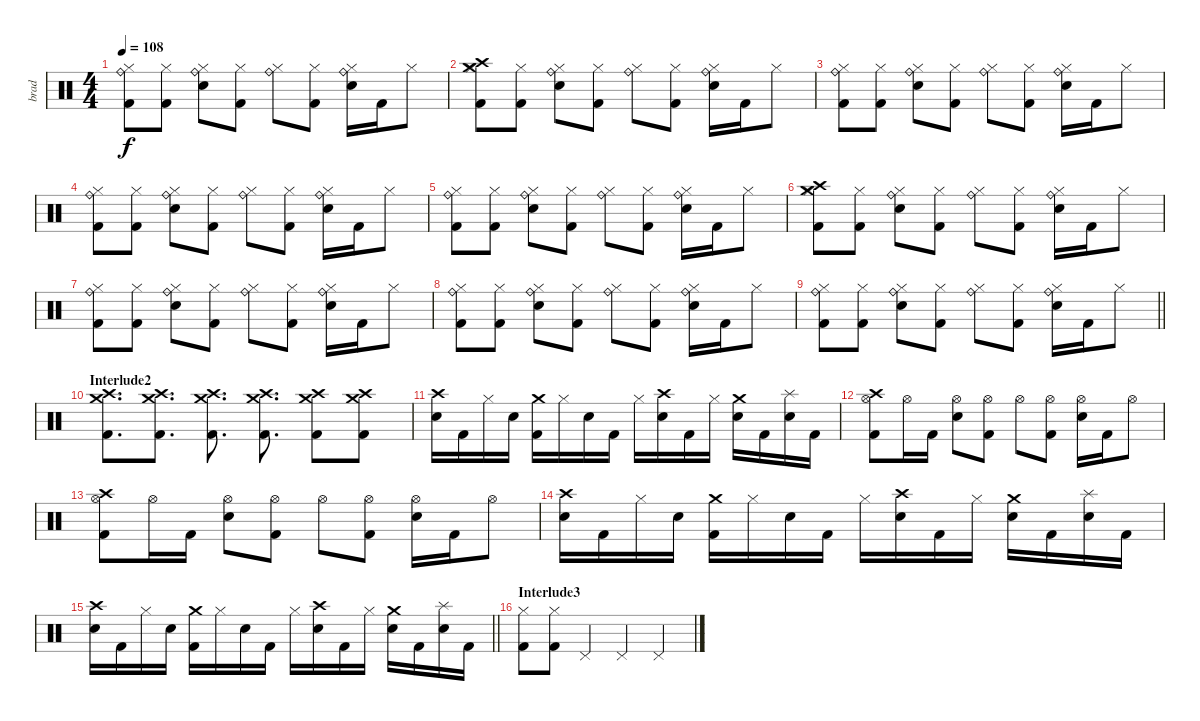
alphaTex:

\track ("brad" "brad") {instrument percussion}
\staff {score}
\articulation defaults
\ts (4 4)
\tempo 108
\clef neutral
\ks c
("Ride (bell)" "Hi-Hat (closed)" "Kick (hit) 2").8{dy f} ("Hi-Hat (closed)" "Kick (hit) 2").8 ("Ride (bell)" "Hi-Hat (closed)" "Electric Snare (hit)").8 ("Hi-Hat (closed)" "Kick (hit) 2").8 ("Ride (bell)" "Hi-Hat (closed)").8 ("Hi-Hat (closed)" "Kick (hit) 2").8 ("Ride (bell)" "Hi-Hat (closed)" "Electric Snare (hit)").16 "Kick (hit) 2".16 "Hi-Hat (closed)".8 |
("Crash medium (hit)" "Crash high (hit)" "Hi-Hat (closed)" "Kick (hit) 2").8 ("Hi-Hat (closed)" "Kick (hit) 2").8 ("Ride (bell)" "Hi-Hat (closed)" "Electric Snare (hit)").8 ("Hi-Hat (closed)" "Kick (hit) 2").8 ("Ride (bell)" "Hi-Hat (closed)").8 ("Hi-Hat (closed)" "Kick (hit) 2").8 ("Ride (bell)" "Hi-Hat (closed)" "Electric Snare (hit)").16 "Kick (hit) 2".16 "Hi-Hat (closed)".8 |
("Ride (bell)" "Hi-Hat (closed)" "Kick (hit) 2").8 ("Hi-Hat (closed)" "Kick (hit) 2").8 ("Ride (bell)" "Hi-Hat (closed)" "Electric Snare (hit)").8 ("Hi-Hat (closed)" "Kick (hit) 2").8 ("Ride (bell)" "Hi-Hat (closed)").8 ("Hi-Hat (closed)" "Kick (hit) 2").8 ("Ride (bell)" "Hi-Hat (closed)" "Electric Snare (hit)").16 "Kick (hit) 2".16 "Hi-Hat (closed)".8 |
("Ride (bell)" "Hi-Hat (closed)" "Kick (hit) 2").8 ("Hi-Hat (closed)" "Kick (hit) 2").8 ("Ride (bell)" "Hi-Hat (closed)" "Electric Snare (hit)").8 ("Hi-Hat (closed)" "Kick (hit) 2").8 ("Ride (bell)" "Hi-Hat (closed)").8 ("Hi-Hat (closed)" "Kick (hit) 2").8 ("Ride (bell)" "Hi-Hat (closed)" "Electric Snare (hit)").16 "Kick (hit) 2".16 "Hi-Hat (closed)".8 |
("Ride (bell)" "Hi-Hat (closed)" "Kick (hit) 2").8 ("Hi-Hat (closed)" "Kick (hit) 2").8 ("Ride (bell)" "Hi-Hat (closed)" "Electric Snare (hit)").8 ("Hi-Hat (closed)" "Kick (hit) 2").8 ("Ride (bell)" "Hi-Hat (closed)").8 ("Hi-Hat (closed)" "Kick (hit) 2").8 ("Ride (bell)" "Hi-Hat (closed)" "Electric Snare (hit)").16 "Kick (hit) 2".16 "Hi-Hat (closed)".8 |
("Crash medium (hit)" "Crash high (hit)" "Hi-Hat (closed)" "Kick (hit) 2").8 ("Hi-Hat (closed)" "Kick (hit) 2").8 ("Ride (bell)" "Hi-Hat (closed)" "Electric Snare (hit)").8 ("Hi-Hat (closed)" "Kick (hit) 2").8 ("Ride (bell)" "Hi-Hat (closed)").8 ("Hi-Hat (closed)" "Kick (hit) 2").8 ("Ride (bell)" "Hi-Hat (closed)" "Electric Snare (hit)").16 "Kick (hit) 2".16 "Hi-Hat (closed)".8 |
("Ride (bell)" "Hi-Hat (closed)" "Kick (hit) 2").8 ("Hi-Hat (closed)" "Kick (hit) 2").8 ("Ride (bell)" "Hi-Hat (closed)" "Electric Snare (hit)").8 ("Hi-Hat (closed)" "Kick (hit) 2").8 ("Ride (bell)" "Hi-Hat (closed)").8 ("Hi-Hat (closed)" "Kick (hit) 2").8 ("Ride (bell)" "Hi-Hat (closed)" "Electric Snare (hit)").16 "Kick (hit) 2".16 "Hi-Hat (closed)".8 |
("Ride (bell)" "Hi-Hat (closed)" "Kick (hit) 2").8 ("Hi-Hat (closed)" "Kick (hit) 2").8 ("Ride (bell)" "Hi-Hat (closed)" "Electric Snare (hit)").8 ("Hi-Hat (closed)" "Kick (hit) 2").8 ("Ride (bell)" "Hi-Hat (closed)").8 ("Hi-Hat (closed)" "Kick (hit) 2").8 ("Ride (bell)" "Hi-Hat (closed)" "Electric Snare (hit)").16 "Kick (hit) 2".16 "Hi-Hat (closed)".8 |
\barLineRight lightlight
("Ride (bell)" "Hi-Hat (closed)" "Kick (hit) 2").8 ("Hi-Hat (closed)" "Kick (hit) 2").8 ("Ride (bell)" "Hi-Hat (closed)" "Electric Snare (hit)").8 ("Hi-Hat (closed)" "Kick (hit) 2").8 ("Ride (bell)" "Hi-Hat (closed)").8 ("Hi-Hat (closed)" "Kick (hit) 2").8 ("Ride (bell)" "Hi-Hat (closed)" "Electric Snare (hit)").16 "Kick (hit) 2".16 "Hi-Hat (closed)".8 |
\section ("" "Interlude2")
("Crash medium (hit)" "Crash high (hit)" "Kick (hit) 2").8{d} ("Crash medium (hit)" "Crash high (hit)" "Kick (hit) 2").8{d} ("Crash medium (hit)" "Crash high (hit)" "Kick (hit) 2").8{d} ("Crash medium (hit)" "Crash high (hit)" "Kick (hit) 2").8{d} ("Crash medium (hit)" "Crash high (hit)" "Kick (hit) 2").8 ("Crash medium (hit)" "Crash high (hit)" "Kick (hit) 2").8 |
("Crash high (hit)" "Electric Snare (hit)").16 "Kick (hit) 2".16 "Hi-Hat (closed)".16 "Electric Snare (hit)".16 ("Crash medium (hit)" "Kick (hit) 2").16 "Hi-Hat (closed)".16 "Electric Snare (hit)".16 "Kick (hit) 2".16 "Hi-Hat (closed)".16 ("Crash high (hit)" "Electric Snare (hit)").16 "Kick (hit) 2".16 "Hi-Hat (closed)".16 ("Crash medium (hit)" "Electric Snare (hit)").16 "Kick (hit) 2".16 ("Splash (hit)" "Electric Snare (hit)").16 "Kick (hit) 2".16 |
("Crash high (hit)" "Hi-Hat (open)" "Kick (hit) 2").8 "Hi-Hat (open)".16 "Kick (hit) 2".16 ("Hi-Hat (open)" "Electric Snare (hit)").8 ("Hi-Hat (open)" "Kick (hit) 2").8 "Hi-Hat (open)".8 ("Hi-Hat (open)" "Kick (hit) 2").8 ("Hi-Hat (open)" "Electric Snare (hit)").16 "Kick (hit) 2".16 "Hi-Hat (open)".8 |
("Crash high (hit)" "Hi-Hat (open)" "Kick (hit) 2").8 "Hi-Hat (open)".16 "Kick (hit) 2".16 ("Hi-Hat (open)" "Electric Snare (hit)").8 ("Hi-Hat (open)" "Kick (hit) 2").8 "Hi-Hat (open)".8 ("Hi-Hat (open)" "Kick (hit) 2").8 ("Hi-Hat (open)" "Electric Snare (hit)").16 "Kick (hit) 2".16 "Hi-Hat (open)".8 |
("Crash high (hit)" "Electric Snare (hit)").16 "Kick (hit) 2".16 "Hi-Hat (closed)".16 "Electric Snare (hit)".16 ("Crash medium (hit)" "Kick (hit) 2").16 "Hi-Hat (closed)".16 "Electric Snare (hit)".16 "Kick (hit) 2".16 "Hi-Hat (closed)".16 ("Crash high (hit)" "Electric Snare (hit)").16 "Kick (hit) 2".16 "Hi-Hat (closed)".16 ("Crash medium (hit)" "Electric Snare (hit)").16 "Kick (hit) 2".16 ("Splash (hit)" "Electric Snare (hit)").16 "Kick (hit) 2".16 |
\barLineRight lightlight
("Crash high (hit)" "Electric Snare (hit)").16 "Kick (hit) 2".16 "Hi-Hat (closed)".16 "Electric Snare (hit)".16 ("Crash medium (hit)" "Kick (hit) 2").16 "Hi-Hat (closed)".16 "Electric Snare (hit)".16 "Kick (hit) 2".16 "Hi-Hat (closed)".16 ("Crash high (hit)" "Electric Snare (hit)").16 "Kick (hit) 2".16 "Hi-Hat (closed)".16 ("Crash medium (hit)" "Electric Snare (hit)").16 "Kick (hit) 2".16 ("Splash (hit)" "Electric Snare (hit)").16 "Kick (hit) 2".16 |
\section ("" "Interlude3")
("Hi-Hat (closed)" "Kick (hit) 2").8 ("Hi-Hat (closed)" "Kick (hit) 2").8 "Pedal Hi-Hat (hit)".4 "Pedal Hi-Hat (hit)".4 "Pedal Hi-Hat (hit)".4
